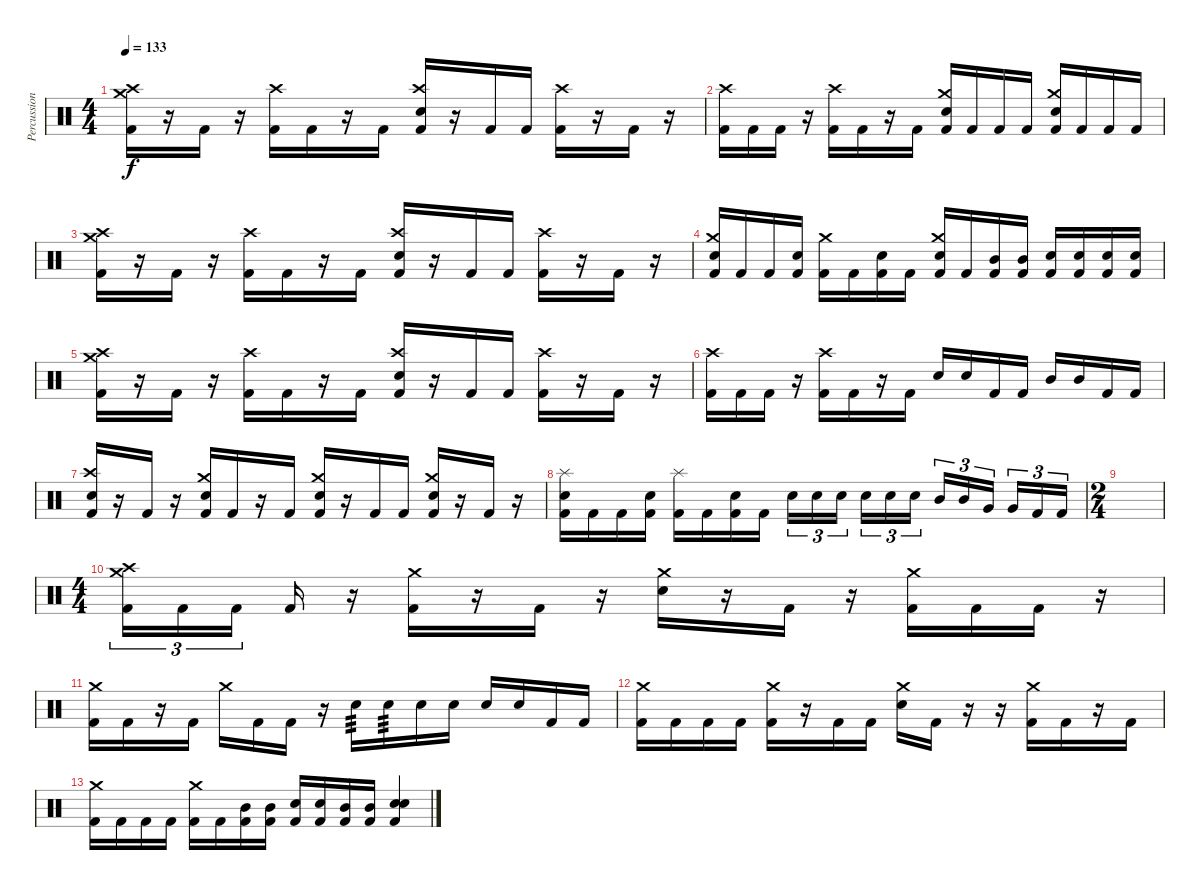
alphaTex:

\track ("Percussion" "Percussion") {instrument percussion}
\staff {score}
\articulation defaults
\ts (4 4)
\tempo 133
\clef neutral
\ks c
("Kick (hit) 2" "Crash medium (hit)" "Crash high (hit)").16{dy f} r.16 "Kick (hit) 2".16 r.16 ("Kick (hit) 2" "Crash high (hit)").16 "Kick (hit) 2".16 r.16 "Kick (hit) 2".16 ("Kick (hit) 2" "Electric Snare (hit)" "Crash high (hit)").16 r.16 "Kick (hit) 2".16 "Kick (hit) 2".16 ("Kick (hit) 2" "Crash high (hit)").16 r.16 "Kick (hit) 2".16 r.16 |
("Kick (hit) 2" "Crash high (hit)").16 "Kick (hit) 2".16 "Kick (hit) 2".16 r.16 ("Kick (hit) 2" "Crash high (hit)").16 "Kick (hit) 2".16 r.16 "Kick (hit) 2".16 ("Kick (hit) 2" "Electric Snare (hit)" "Crash medium (hit)").16 "Kick (hit) 2".16 "Kick (hit) 2".16 "Kick (hit) 2".16 ("Kick (hit) 2" "Electric Snare (hit)" "Crash medium (hit)").16 "Kick (hit) 2".16 "Kick (hit) 2".16 "Kick (hit) 2".16 |
("Kick (hit) 2" "Crash medium (hit)" "Crash high (hit)").16 r.16 "Kick (hit) 2".16 r.16 ("Kick (hit) 2" "Crash high (hit)").16 "Kick (hit) 2".16 r.16 "Kick (hit) 2".16 ("Kick (hit) 2" "Electric Snare (hit)" "Crash high (hit)").16 r.16 "Kick (hit) 2".16 "Kick (hit) 2".16 ("Kick (hit) 2" "Crash high (hit)").16 r.16 "Kick (hit) 2".16 r.16 |
("Kick (hit) 2" "Electric Snare (hit)" "Crash medium (hit)").16 "Kick (hit) 2".16 "Kick (hit) 2".16 ("Kick (hit) 2" "Electric Snare (hit)").16 ("Kick (hit) 2" "Crash medium (hit)").16 "Kick (hit) 2".16 ("Kick (hit) 2" "Electric Snare (hit)").16 "Kick (hit) 2".16 ("Kick (hit) 2" "Electric Snare (hit)" "Crash medium (hit)").16 "Kick (hit) 2".16 ("Kick (hit) 2" "Mid Tom (hit)").16 ("Kick (hit) 2" "Mid Tom (hit)").16 ("Kick (hit) 2" "Electric Snare (hit)").16 ("Kick (hit) 2" "Electric Snare (hit)").16 ("Kick (hit) 2" "Electric Snare (hit)").16 ("Kick (hit) 2" "Electric Snare (hit)").16 |
("Kick (hit) 2" "Crash medium (hit)" "Crash high (hit)").16 r.16 "Kick (hit) 2".16 r.16 ("Kick (hit) 2" "Crash high (hit)").16 "Kick (hit) 2".16 r.16 "Kick (hit) 2".16 ("Kick (hit) 2" "Electric Snare (hit)" "Crash high (hit)").16 r.16 "Kick (hit) 2".16 "Kick (hit) 2".16 ("Kick (hit) 2" "Crash high (hit)").16 r.16 "Kick (hit) 2".16 r.16 |
("Kick (hit) 2" "Crash high (hit)").16 "Kick (hit) 2".16 "Kick (hit) 2".16 r.16 ("Kick (hit) 2" "Crash high (hit)").16 "Kick (hit) 2".16 r.16 "Kick (hit) 2".16 "Electric Snare (hit)".16 "Electric Snare (hit)".16 "Kick (hit) 2".16 "Kick (hit) 2".16 "Mid Tom (hit)".16 "Mid Tom (hit)".16 "Kick (hit) 2".16 "Kick (hit) 2".16 |
("Kick (hit) 2" "Electric Snare (hit)" "Crash high (hit)").16 r.16 "Kick (hit) 2".16 r.16 ("Kick (hit) 2" "Electric Snare (hit)" "Crash medium (hit)").16 "Kick (hit) 2".16 r.16 "Kick (hit) 2".16 ("Kick (hit) 2" "Electric Snare (hit)" "Crash medium (hit)").16 r.16 "Kick (hit) 2".16 "Kick (hit) 2".16 ("Kick (hit) 2" "Electric Snare (hit)" "Crash medium (hit)").16 r.16 "Kick (hit) 2".16 r.16 |
("Kick (hit) 2" "Electric Snare (hit)" "Splash (hit)").16 "Kick (hit) 2".16 "Kick (hit) 2".16 ("Kick (hit) 2" "Electric Snare (hit)").16 ("Kick (hit) 2" "Splash (hit)").16 "Kick (hit) 2".16 ("Kick (hit) 2" "Electric Snare (hit)").16 "Kick (hit) 2".16 "Electric Snare (hit)".16{tu (3 2)} "Electric Snare (hit)".16{tu (3 2)} "Electric Snare (hit)".16{tu (3 2) beam splitsecondary} "Electric Snare (hit)".16{tu (3 2)} "Electric Snare (hit)".16{tu (3 2)} "Electric Snare (hit)".16{tu (3 2)} "Mid Tom (hit)".16{tu (3 2)} "Mid Tom (hit)".16{tu (3 2)} "Very Low Tom (hit)".16{tu (3 2) beam splitsecondary} "Very Low Tom (hit)".16{tu (3 2)} "Kick (hit) 2".16{tu (3 2)} "Kick (hit) 2".16{tu (3 2)} |
\ts (2 4)
|
\ts (4 4)
("Kick (hit) 2" "Crash medium (hit)" "Crash high (hit)").16{tu (3 2)} "Kick (hit) 2".16{tu (3 2)} "Kick (hit) 2".16{tu (3 2) beam splitsecondary} "Kick (hit) 2".16 r.16 ("Kick (hit) 2" "Crash medium (hit)").16 r.16 "Kick (hit) 2".16 r.16 ("Electric Snare (hit)" "Crash medium (hit)").16 r.16 "Kick (hit) 2".16 r.16 ("Kick (hit) 2" "Crash medium (hit)").16 "Kick (hit) 2".16 "Kick (hit) 2".16 r.16 |
("Kick (hit) 2" "Crash medium (hit)").16 "Kick (hit) 2".16 r.16 "Kick (hit) 2".16 "Crash medium (hit)".16 "Kick (hit) 2".16 "Kick (hit) 2".16 r.16 "Electric Snare (hit)".16{tp 3} "Electric Snare (hit)".16{tp 3} "Electric Snare (hit)".16 "Electric Snare (hit)".16 "Electric Snare (hit)".16 "Electric Snare (hit)".16 "Kick (hit) 2".16 "Kick (hit) 2".16 |
("Kick (hit) 2" "Crash medium (hit)").16 "Kick (hit) 2".16 "Kick (hit) 2".16 "Kick (hit) 2".16 ("Kick (hit) 2" "Crash medium (hit)").16 r.16 "Kick (hit) 2".16 "Kick (hit) 2".16 ("Electric Snare (hit)" "Crash medium (hit)").16 "Kick (hit) 2".16 r.16 r.16 ("Kick (hit) 2" "Crash medium (hit)").16 "Kick (hit) 2".16 r.16 "Kick (hit) 2".16 |
("Kick (hit) 2" "Crash medium (hit)").16 "Kick (hit) 2".16 "Kick (hit) 2".16 "Kick (hit) 2".16 ("Kick (hit) 2" "Crash medium (hit)").16 "Kick (hit) 2".16 ("Kick (hit) 2" "Mid Tom (hit)").16 ("Kick (hit) 2" "Mid Tom (hit)").16 ("Kick (hit) 2" "Electric Snare (hit)").16 ("Kick (hit) 2" "Electric Snare (hit)").16 ("Kick (hit) 2" "Mid Tom (hit)").16 ("Kick (hit) 2" "Mid Tom (hit)").16 ("Kick (hit) 2" "Electric Snare (hit)" "Electric Snare (hit)").4
